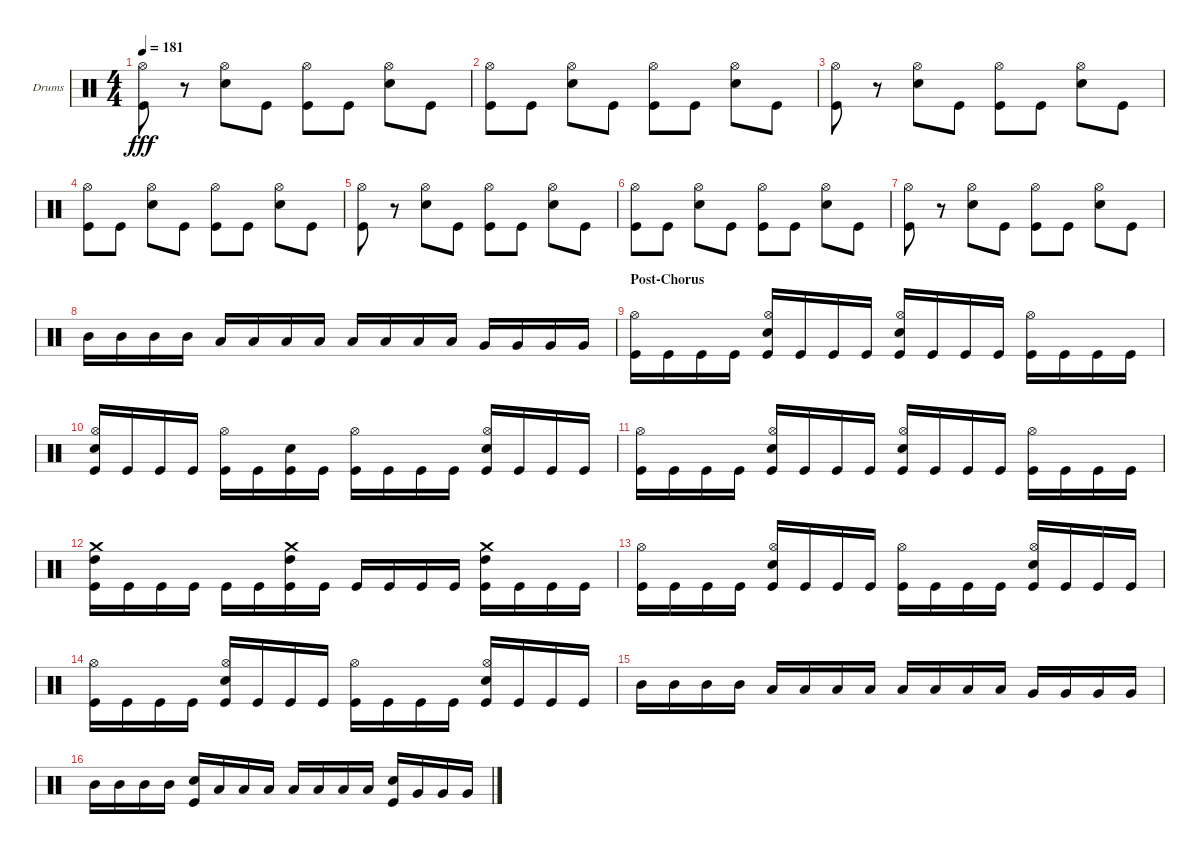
\bracketExtendMode groupsimilarinstruments
\firstSystemTrackNameOrientation horizontal
\otherSystemsTrackNameOrientation horizontal
\track ("Drumkit" "Drums") {solo instrument percussion}
\staff {score}
\articulation defaults
\ts (4 4)
\tempo 181
\clef neutral
\scale
0.333333
\ks c
("Kick (hit)" "Hi-Hat (open)").8{dy fff} r.8 ("Hi-Hat (open)" "Snare (hit) 2").8 "Kick (hit)".8 ("Kick (hit)" "Hi-Hat (open)").8 "Kick (hit)".8 ("Hi-Hat (open)" "Snare (hit) 2").8 "Kick (hit)".8 |
\scale
0.333333 ("Kick (hit)" "Hi-Hat (open)").8 "Kick (hit)".8 ("Hi-Hat (open)" "Snare (hit) 2").8 "Kick (hit)".8 ("Kick (hit)" "Hi-Hat (open)").8 "Kick (hit)".8 ("Hi-Hat (open)" "Snare (hit) 2").8 "Kick (hit)".8 |
\scale
0.333333 ("Kick (hit)" "Hi-Hat (open)").8 r.8 ("Hi-Hat (open)" "Snare (hit) 2").8 "Kick (hit)".8 ("Kick (hit)" "Hi-Hat (open)").8 "Kick (hit)".8 ("Hi-Hat (open)" "Snare (hit) 2").8 "Kick (hit)".8 |
\scale
0.333333 ("Kick (hit)" "Hi-Hat (open)").8 "Kick (hit)".8 ("Hi-Hat (open)" "Snare (hit) 2").8 "Kick (hit)".8 ("Kick (hit)" "Hi-Hat (open)").8 "Kick (hit)".8 ("Hi-Hat (open)" "Snare (hit) 2").8 "Kick (hit)".8 |
\scale
0.333333 ("Kick (hit)" "Hi-Hat (open)").8 r.8 ("Hi-Hat (open)" "Snare (hit) 2").8 "Kick (hit)".8 ("Kick (hit)" "Hi-Hat (open)").8 "Kick (hit)".8 ("Hi-Hat (open)" "Snare (hit) 2").8 "Kick (hit)".8 |
\scale
0.333333 ("Kick (hit)" "Hi-Hat (open)").8 "Kick (hit)".8 ("Hi-Hat (open)" "Snare (hit) 2").8 "Kick (hit)".8 ("Kick (hit)" "Hi-Hat (open)").8 "Kick (hit)".8 ("Hi-Hat (open)" "Snare (hit) 2").8 "Kick (hit)".8 |
\scale
0.333333 ("Kick (hit)" "Hi-Hat (open)").8 r.8 ("Hi-Hat (open)" "Snare (hit) 2").8 "Kick (hit)".8 ("Kick (hit)" "Hi-Hat (open)").8 "Kick (hit)".8 ("Hi-Hat (open)" "Snare (hit) 2").8 "Kick (hit)".8 |
\scale
0.333333 "Mid Tom (hit)".16 "Mid Tom (hit)".16 "Mid Tom (hit)".16 "Mid Tom (hit)".16 "Low Tom (hit)".16 "Low Tom (hit)".16 "Low Tom (hit)".16 "Low Tom (hit)".16 "Low Tom (hit)".16 "Low Tom (hit)".16 "Low Tom (hit)".16 "Low Tom (hit)".16 "Very Low Tom (hit)".16 "Very Low Tom (hit)".16 "Very Low Tom (hit)".16 "Very Low Tom (hit)".16 |
\section ("" "Post-Chorus")
\scale
0.333333 ("Kick (hit)" "Hi-Hat (open)").16 "Kick (hit)".16 "Kick (hit)".16 "Kick (hit)".16 ("Kick (hit)" "Snare (hit) 2" "Hi-Hat (open)").16 "Kick (hit)".16 "Kick (hit)".16 "Kick (hit)".16 ("Kick (hit)" "Hi-Hat (open)" "Snare (hit) 2").16 "Kick (hit)".16 "Kick (hit)".16 "Kick (hit)".16 ("Kick (hit)" "Hi-Hat (open)").16 "Kick (hit)".16 "Kick (hit)".16 "Kick (hit)".16 |
\scale
0.333333 ("Kick (hit)" "Hi-Hat (open)" "Snare (hit) 2").16 "Kick (hit)".16 "Kick (hit)".16 "Kick (hit)".16 ("Kick (hit)" "Hi-Hat (open)").16 "Kick (hit)".16 ("Kick (hit)" "Snare (hit) 2").16 "Kick (hit)".16 ("Kick (hit)" "Hi-Hat (open)").16 "Kick (hit)".16 "Kick (hit)".16 "Kick (hit)".16 ("Kick (hit)" "Hi-Hat (open)" "Snare (hit) 2").16 "Kick (hit)".16 "Kick (hit)".16 "Kick (hit)".16 |
\scale
0.333333 ("Kick (hit)" "Hi-Hat (open)").16 "Kick (hit)".16 "Kick (hit)".16 "Kick (hit)".16 ("Kick (hit)" "Snare (hit) 2" "Hi-Hat (open)").16 "Kick (hit)".16 "Kick (hit)".16 "Kick (hit)".16 ("Kick (hit)" "Hi-Hat (open)" "Snare (hit) 2").16 "Kick (hit)".16 "Kick (hit)".16 "Kick (hit)".16 ("Kick (hit)" "Hi-Hat (open)").16 "Kick (hit)".16 "Kick (hit)".16 "Kick (hit)".16 |
\scale
0.333333 ("Kick (hit)" "High Tom (hit)" "Crash medium (hit)").16 "Kick (hit)".16 "Kick (hit)".16 "Kick (hit)".16 "Kick (hit)".16 "Kick (hit)".16 ("Kick (hit)" "High Tom (hit)" "Crash medium (hit)").16 "Kick (hit)".16 "Kick (hit)".16 "Kick (hit)".16 "Kick (hit)".16 "Kick (hit)".16 ("Kick (hit)" "High Tom (hit)" "Crash medium (hit)").16 "Kick (hit)".16 "Kick (hit)".16 "Kick (hit)".16 |
\scale
0.333333 ("Kick (hit)" "Hi-Hat (open)").16 "Kick (hit)".16 "Kick (hit)".16 "Kick (hit)".16 ("Kick (hit)" "Snare (hit) 2" "Hi-Hat (open)").16 "Kick (hit)".16 "Kick (hit)".16 "Kick (hit)".16 ("Kick (hit)" "Hi-Hat (open)").16 "Kick (hit)".16 "Kick (hit)".16 "Kick (hit)".16 ("Kick (hit)" "Hi-Hat (open)" "Snare (hit) 2").16 "Kick (hit)".16 "Kick (hit)".16 "Kick (hit)".16 |
\scale
0.333333 ("Kick (hit)" "Hi-Hat (open)").16 "Kick (hit)".16 "Kick (hit)".16 "Kick (hit)".16 ("Kick (hit)" "Snare (hit) 2" "Hi-Hat (open)").16 "Kick (hit)".16 "Kick (hit)".16 "Kick (hit)".16 ("Kick (hit)" "Hi-Hat (open)").16 "Kick (hit)".16 "Kick (hit)".16 "Kick (hit)".16 ("Kick (hit)" "Hi-Hat (open)" "Snare (hit) 2").16 "Kick (hit)".16 "Kick (hit)".16 "Kick (hit)".16 |
\scale
0.333333 "Mid Tom (hit)".16 "Mid Tom (hit)".16 "Mid Tom (hit)".16 "Mid Tom (hit)".16 "Low Tom (hit)".16 "Low Tom (hit)".16 "Low Tom (hit)".16 "Low Tom (hit)".16 "Low Tom (hit)".16 "Low Tom (hit)".16 "Low Tom (hit)".16 "Low Tom (hit)".16 "Very Low Tom (hit)".16 "Very Low Tom (hit)".16 "Very Low Tom (hit)".16 "Very Low Tom (hit)".16 |
\scale
0.333333 "Mid Tom (hit)".16 "Mid Tom (hit)".16 "Mid Tom (hit)".16 "Mid Tom (hit)".16 ("Kick (hit)" "Snare (hit) 2").16 "Low Tom (hit)".16 "Low Tom (hit)".16 "Low Tom (hit)".16 "Low Tom (hit)".16 "Low Tom (hit)".16 "Low Tom (hit)".16 "Low Tom (hit)".16 ("Kick (hit)" "Snare (hit) 2").16 "Very Low Tom (hit)".16 "Very Low Tom (hit)".16 "Very Low Tom (hit)".16
